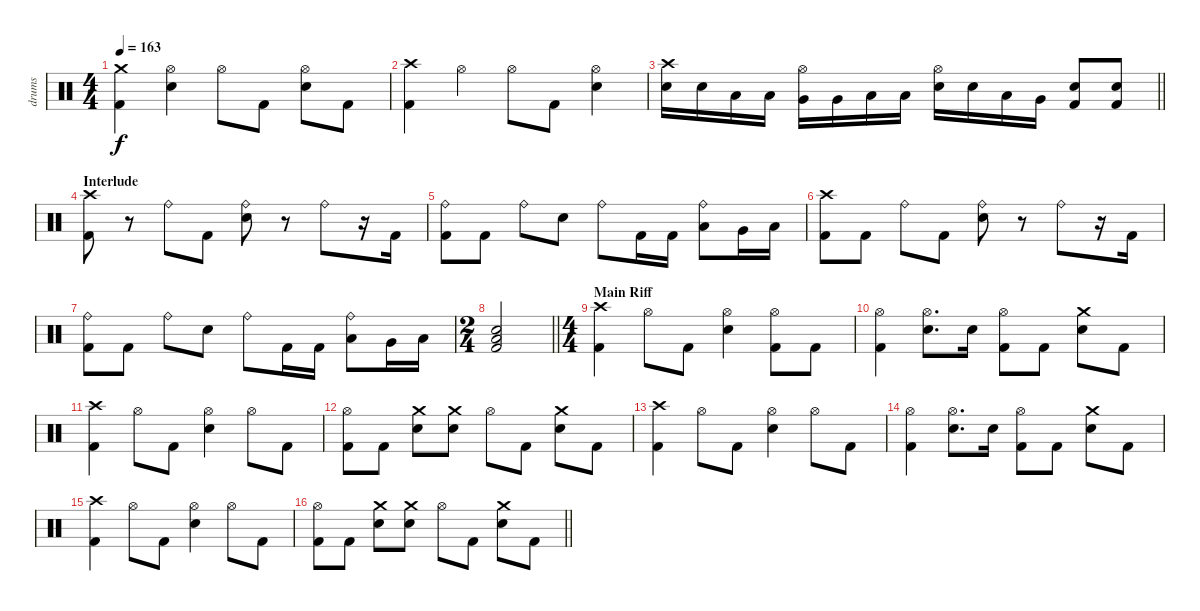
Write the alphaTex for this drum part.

\track ("drums" "drums") {instrument percussion}
\staff {score}
\articulation defaults
\ts (4 4)
\tempo 163
\clef neutral
\ks c
("Crash medium (hit)" "Kick (hit) 2").4{dy f} ("Hi-Hat (open)" "Snare (hit) 2").4 "Hi-Hat (open)".8 "Kick (hit) 2".8 ("Hi-Hat (open)" "Snare (hit) 2").8 "Kick (hit) 2".8 |
("Crash high (hit)" "Kick (hit) 2").4 "Hi-Hat (open)".4 "Hi-Hat (open)".8 "Kick (hit) 2".8 ("Hi-Hat (open)" "Snare (hit) 2").4 |
\barLineRight lightlight
("Crash high (hit)" "Snare (hit) 2").16 "Snare (hit) 2".16 "Low Tom (hit)".16 "Low Tom (hit)".16 ("Hi-Hat (open)" "Very Low Tom (hit)").16 "Very Low Tom (hit)".16 "Low Floor Tom (hit)".16 "Low Floor Tom (hit)".16 ("Hi-Hat (open)" "Snare (hit) 2").16 "Snare (hit) 2".16 "Low Tom (hit)".16 "Very Low Tom (hit)".16 ("Snare (hit) 2" "Kick (hit) 2").8 ("Snare (hit) 2" "Kick (hit) 2").8 |
\section ("" "Interlude")
("Crash high (hit)" "Kick (hit) 2").8 r.8 "Ride (bell)".8 "Kick (hit) 2".8 ("Ride (bell)" "Snare (hit) 2").8 r.8 "Ride (bell)".8 r.16 "Kick (hit) 2".16 |
("Ride (bell)" "Kick (hit) 2").8 "Kick (hit) 2".8 "Ride (bell)".8 "Snare (hit) 2".8 "Ride (bell)".8 "Kick (hit) 2".16 "Kick (hit) 2".16 ("Ride (bell)" "Low Tom (hit)").8 "Very Low Tom (hit)".16 "Low Floor Tom (hit)".16 |
("Crash high (hit)" "Kick (hit) 2").8 "Kick (hit) 2".8 "Ride (bell)".8 "Kick (hit) 2".8 ("Ride (bell)" "Snare (hit) 2").8 r.8 "Ride (bell)".8 r.16 "Kick (hit) 2".16 |
("Ride (bell)" "Kick (hit) 2").8 "Kick (hit) 2".8 "Ride (bell)".8 "Snare (hit) 2".8 "Ride (bell)".8 "Kick (hit) 2".16 "Kick (hit) 2".16 ("Ride (bell)" "Low Tom (hit)").8 "Very Low Tom (hit)".16 "Low Floor Tom (hit)".16 |
\ts (2 4)
\barLineRight lightlight
("Low Floor Tom (hit)" "Snare (hit) 2" "Kick (hit) 2").2 |
\ts (4 4)
\section ("" "Main Riff")
("Crash high (hit)" "Kick (hit) 2").4 "Hi-Hat (open)".8 "Kick (hit) 2".8 ("Hi-Hat (open)" "Snare (hit) 2").4 ("Hi-Hat (open)" "Kick (hit) 2").8 "Kick (hit) 2".8 |
("Hi-Hat (open)" "Kick (hit) 2").4 ("Hi-Hat (open)" "Snare (hit) 2").8{d} "Snare (hit) 2".16 ("Hi-Hat (open)" "Kick (hit) 2").8 "Kick (hit) 2".8 ("Crash medium (hit)" "Snare (hit) 2").8 "Kick (hit) 2".8 |
("Crash high (hit)" "Kick (hit) 2").4 "Hi-Hat (open)".8 "Kick (hit) 2".8 ("Hi-Hat (open)" "Snare (hit) 2").4 "Hi-Hat (open)".8 "Kick (hit) 2".8 |
("Hi-Hat (open)" "Kick (hit) 2").8 "Kick (hit) 2".8 ("Crash medium (hit)" "Snare (hit) 2").8 ("Crash medium (hit)" "Snare (hit) 2").8 "Hi-Hat (open)".8 "Kick (hit) 2".8 ("Crash medium (hit)" "Snare (hit) 2").8 "Kick (hit) 2".8 |
("Crash high (hit)" "Kick (hit) 2").4 "Hi-Hat (open)".8 "Kick (hit) 2".8 ("Hi-Hat (open)" "Snare (hit) 2").4 "Hi-Hat (open)".8 "Kick (hit) 2".8 |
("Hi-Hat (open)" "Kick (hit) 2").4 ("Hi-Hat (open)" "Snare (hit) 2").8{d} "Snare (hit) 2".16 ("Hi-Hat (open)" "Kick (hit) 2").8 "Kick (hit) 2".8 ("Crash medium (hit)" "Snare (hit) 2").8 "Kick (hit) 2".8 |
("Crash high (hit)" "Kick (hit) 2").4 "Hi-Hat (open)".8 "Kick (hit) 2".8 ("Hi-Hat (open)" "Snare (hit) 2").4 "Hi-Hat (open)".8 "Kick (hit) 2".8 |
\barLineRight lightlight
("Hi-Hat (open)" "Kick (hit) 2").8 "Kick (hit) 2".8 ("Crash medium (hit)" "Snare (hit) 2").8 ("Crash medium (hit)" "Snare (hit) 2").8 "Hi-Hat (open)".8 "Kick (hit) 2".8 ("Crash medium (hit)" "Snare (hit) 2").8 "Kick (hit) 2".8
